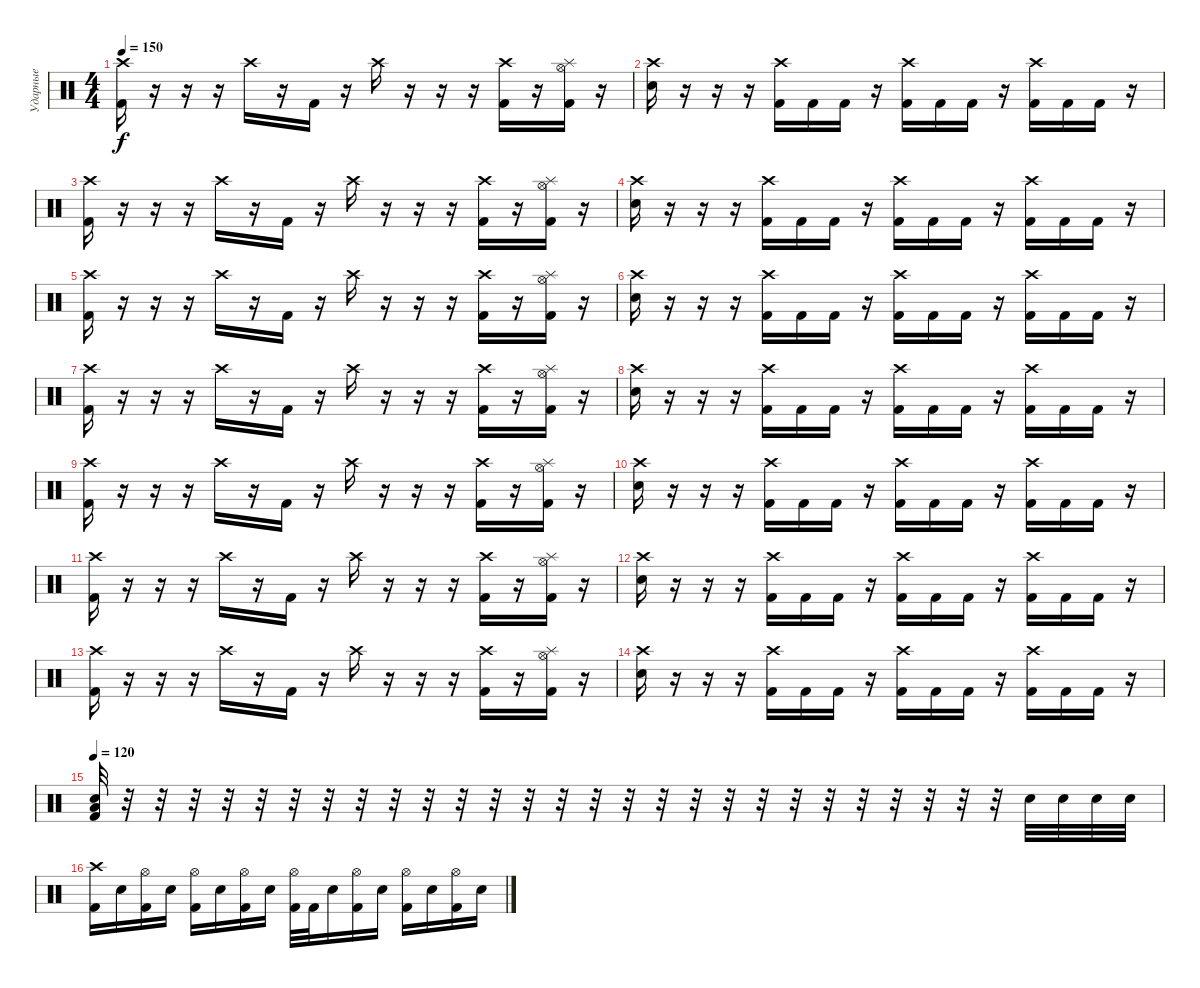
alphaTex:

\track ("Ударные" "Ударные") {instrument percussion}
\staff {score}
\articulation defaults
\ts (4 4)
\tempo 150
\clef neutral
\ks c
("Crash high (hit)" "Kick (hit) 2").16{dy f} r.16 r.16 r.16 "Crash high (hit)".16 r.16 "Kick (hit) 2".16 r.16 "Crash high (hit)".16 r.16 r.16 r.16 ("Crash high (hit)" "Kick (hit) 2").16 r.16 ("Hi-Hat (open)" "Splash (hit)" "Kick (hit) 2").16 r.16 |
("Crash high (hit)" "Electric Snare (hit)").16 r.16 r.16 r.16 ("Crash high (hit)" "Kick (hit) 2").16 "Kick (hit) 2".16 "Kick (hit) 2".16 r.16 ("Crash high (hit)" "Kick (hit) 2").16 "Kick (hit) 2".16 "Kick (hit) 2".16 r.16 ("Crash high (hit)" "Kick (hit) 2").16 "Kick (hit) 2".16 "Kick (hit) 2".16 r.16 |
("Crash high (hit)" "Kick (hit) 2").16 r.16 r.16 r.16 "Crash high (hit)".16 r.16 "Kick (hit) 2".16 r.16 "Crash high (hit)".16 r.16 r.16 r.16 ("Crash high (hit)" "Kick (hit) 2").16 r.16 ("Hi-Hat (open)" "Splash (hit)" "Kick (hit) 2").16 r.16 |
("Crash high (hit)" "Electric Snare (hit)").16 r.16 r.16 r.16 ("Crash high (hit)" "Kick (hit) 2").16 "Kick (hit) 2".16 "Kick (hit) 2".16 r.16 ("Crash high (hit)" "Kick (hit) 2").16 "Kick (hit) 2".16 "Kick (hit) 2".16 r.16 ("Crash high (hit)" "Kick (hit) 2").16 "Kick (hit) 2".16 "Kick (hit) 2".16 r.16 |
("Crash high (hit)" "Kick (hit) 2").16 r.16 r.16 r.16 "Crash high (hit)".16 r.16 "Kick (hit) 2".16 r.16 "Crash high (hit)".16 r.16 r.16 r.16 ("Crash high (hit)" "Kick (hit) 2").16 r.16 ("Hi-Hat (open)" "Splash (hit)" "Kick (hit) 2").16 r.16 |
("Crash high (hit)" "Electric Snare (hit)").16 r.16 r.16 r.16 ("Crash high (hit)" "Kick (hit) 2").16 "Kick (hit) 2".16 "Kick (hit) 2".16 r.16 ("Crash high (hit)" "Kick (hit) 2").16 "Kick (hit) 2".16 "Kick (hit) 2".16 r.16 ("Crash high (hit)" "Kick (hit) 2").16 "Kick (hit) 2".16 "Kick (hit) 2".16 r.16 |
("Crash high (hit)" "Kick (hit) 2").16 r.16 r.16 r.16 "Crash high (hit)".16 r.16 "Kick (hit) 2".16 r.16 "Crash high (hit)".16 r.16 r.16 r.16 ("Crash high (hit)" "Kick (hit) 2").16 r.16 ("Hi-Hat (open)" "Splash (hit)" "Kick (hit) 2").16 r.16 |
("Crash high (hit)" "Electric Snare (hit)").16 r.16 r.16 r.16 ("Crash high (hit)" "Kick (hit) 2").16 "Kick (hit) 2".16 "Kick (hit) 2".16 r.16 ("Crash high (hit)" "Kick (hit) 2").16 "Kick (hit) 2".16 "Kick (hit) 2".16 r.16 ("Crash high (hit)" "Kick (hit) 2").16 "Kick (hit) 2".16 "Kick (hit) 2".16 r.16 |
("Crash high (hit)" "Kick (hit) 2").16 r.16 r.16 r.16 "Crash high (hit)".16 r.16 "Kick (hit) 2".16 r.16 "Crash high (hit)".16 r.16 r.16 r.16 ("Crash high (hit)" "Kick (hit) 2").16 r.16 ("Hi-Hat (open)" "Splash (hit)" "Kick (hit) 2").16 r.16 |
("Crash high (hit)" "Electric Snare (hit)").16 r.16 r.16 r.16 ("Crash high (hit)" "Kick (hit) 2").16 "Kick (hit) 2".16 "Kick (hit) 2".16 r.16 ("Crash high (hit)" "Kick (hit) 2").16 "Kick (hit) 2".16 "Kick (hit) 2".16 r.16 ("Crash high (hit)" "Kick (hit) 2").16 "Kick (hit) 2".16 "Kick (hit) 2".16 r.16 |
("Crash high (hit)" "Kick (hit) 2").16 r.16 r.16 r.16 "Crash high (hit)".16 r.16 "Kick (hit) 2".16 r.16 "Crash high (hit)".16 r.16 r.16 r.16 ("Crash high (hit)" "Kick (hit) 2").16 r.16 ("Hi-Hat (open)" "Splash (hit)" "Kick (hit) 2").16 r.16 |
("Crash high (hit)" "Electric Snare (hit)").16 r.16 r.16 r.16 ("Crash high (hit)" "Kick (hit) 2").16 "Kick (hit) 2".16 "Kick (hit) 2".16 r.16 ("Crash high (hit)" "Kick (hit) 2").16 "Kick (hit) 2".16 "Kick (hit) 2".16 r.16 ("Crash high (hit)" "Kick (hit) 2").16 "Kick (hit) 2".16 "Kick (hit) 2".16 r.16 |
("Crash high (hit)" "Kick (hit) 2").16 r.16 r.16 r.16 "Crash high (hit)".16 r.16 "Kick (hit) 2".16 r.16 "Crash high (hit)".16 r.16 r.16 r.16 ("Crash high (hit)" "Kick (hit) 2").16 r.16 ("Hi-Hat (open)" "Splash (hit)" "Kick (hit) 2").16 r.16 |
("Crash high (hit)" "Electric Snare (hit)").16 r.16 r.16 r.16 ("Crash high (hit)" "Kick (hit) 2").16 "Kick (hit) 2".16 "Kick (hit) 2".16 r.16 ("Crash high (hit)" "Kick (hit) 2").16 "Kick (hit) 2".16 "Kick (hit) 2".16 r.16 ("Crash high (hit)" "Kick (hit) 2").16 "Kick (hit) 2".16 "Kick (hit) 2".16 r.16 |
\tempo 120
("Electric Snare (hit)" "Kick (hit) 2" "Low Floor Tom (hit)").32 r.32 r.32 r.32 r.32 r.32 r.32 r.32 r.32 r.32 r.32 r.32 r.32 r.32 r.32 r.32 r.32 r.32 r.32 r.32 r.32 r.32 r.32 r.32 r.32 r.32 r.32 r.32 "Electric Snare (hit)".32 "Electric Snare (hit)".32 "Electric Snare (hit)".32 "Electric Snare (hit)".32 |
("Crash high (hit)" "Kick (hit) 2").16 "Electric Snare (hit)".16 ("Hi-Hat (open)" "Kick (hit) 2").16 "Electric Snare (hit)".16 ("Hi-Hat (open)" "Kick (hit) 2").16 "Electric Snare (hit)".16 ("Hi-Hat (open)" "Kick (hit) 2").16 "Electric Snare (hit)".16 ("Hi-Hat (open)" "Kick (hit) 2").32 "Kick (hit) 2".32 "Electric Snare (hit)".16 ("Hi-Hat (open)" "Kick (hit) 2").16 "Electric Snare (hit)".16 ("Hi-Hat (open)" "Kick (hit) 2").16 "Electric Snare (hit)".16 ("Hi-Hat (open)" "Kick (hit) 2").16 "Electric Snare (hit)".16
